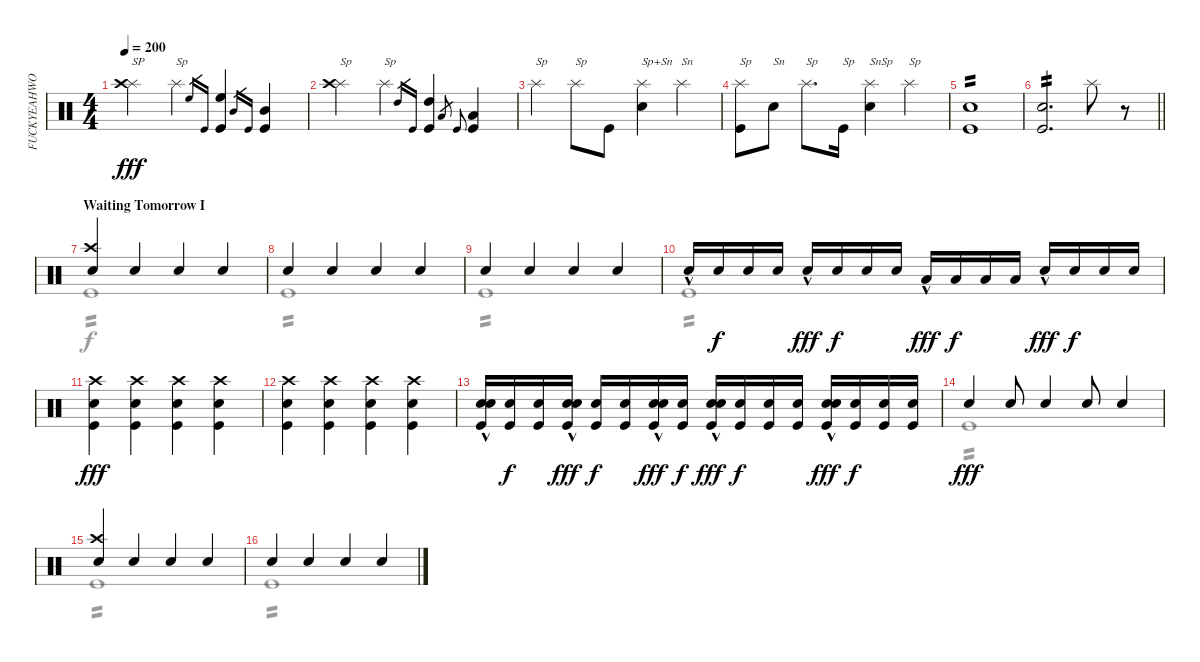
\track ("FUCKYEAHWOOTDAVEMACKINTOSH!(Percussion)" "FUCKYEAHWO") {instrument percussion}
\staff {score}
\articulation defaults
\voice
\ts (4 4)
\tempo 200
\clef neutral
\ks c
("Splash (hit)" "Crash high (hit)").4{txt "SP" dy fff} "Splash (hit)".4{txt "Sp"} "High Floor Tom (hit)".16{gr} "Kick (hit)".16{gr} ("High Floor Tom (hit)" "Kick (hit)").4 "Mid Tom (hit)".16{gr} "Kick (hit)".16{gr} ("Mid Tom (hit)" "Kick (hit)").4 |
("Splash (hit)" "Crash high (hit)").4{txt "Sp"} "Splash (hit)".4{txt "Sp"} "High Tom (hit)".16{gr} "Kick (hit)".16{gr} ("High Tom (hit)" "Kick (hit)").4 "Low Tom (hit)".16{gr} "Kick (hit)".16{gr onbeat} ("Low Tom (hit)" "Kick (hit)").4 |
"Splash (hit)".4{txt "Sp"} "Splash (hit)".8{txt "Sp"} "Kick (hit)".8 ("Snare (hit) 2" "Splash (hit)").4{txt "Sp+Sn"} "Splash (hit)".4{txt "Sn"} |
("Kick (hit)" "Splash (hit)").8{txt "Sp"} "Snare (hit) 2".8{txt "Sn"} "Splash (hit)".8{d txt "Sp"} "Kick (hit)".16{txt "Sp"} ("Snare (hit) 2" "Splash (hit)").4{txt "SnSp"} "Splash (hit)".4{txt "Sp"} |
("Kick (hit)" "Snare (hit) 2").1{tp 2} |
\barLineRight lightlight
("Snare (hit) 2" "Kick (hit)").2{d tp 2} "Splash (hit)".8 r.8 |
\section ("" "Waiting Tomorrow I")
("Snare (hit) 2" "Crash high (hit)").4 "Snare (hit) 2".4 "Snare (hit) 2".4 "Snare (hit) 2".4 |
"Snare (hit) 2".4 "Snare (hit) 2".4 "Snare (hit) 2".4 "Snare (hit) 2".4 |
"Snare (hit) 2".4 "Snare (hit) 2".4 "Snare (hit) 2".4 "Snare (hit) 2".4 |
"Snare (hit) 2"{hac}.16 "Snare (hit) 2".16{dy f} "Snare (hit) 2".16 "Snare (hit) 2".16 "Snare (hit) 2"{hac}.16{dy fff} "Snare (hit) 2".16{dy f} "Snare (hit) 2".16 "Snare (hit) 2".16 "Low Tom (hit)"{hac}.16{dy fff} "Low Tom (hit)".16{dy f} "Low Tom (hit)".16 "Low Tom (hit)".16 "Snare (hit) 2"{hac}.16{dy fff} "Snare (hit) 2".16{dy f} "Snare (hit) 2".16 "Snare (hit) 2".16 |
("Kick (hit)" "Snare (hit) 2" "Crash high (hit)").4{dy fff} ("Kick (hit)" "Snare (hit) 2" "Crash high (hit)").4 ("Kick (hit)" "Snare (hit) 2" "Crash high (hit)").4 ("Kick (hit)" "Snare (hit) 2" "Crash high (hit)").4 |
("Kick (hit)" "Snare (hit) 2" "Crash high (hit)").4 ("Kick (hit)" "Snare (hit) 2" "Crash high (hit)").4 ("Kick (hit)" "Snare (hit) 2" "Crash high (hit)").4 ("Kick (hit)" "Snare (hit) 2" "Crash high (hit)").4 |
("Snare (hit) 2"{hac} "Kick (hit)"{hac} "Electric Snare (hit)").16 ("Snare (hit) 2" "Kick (hit)").16{dy f} ("Snare (hit) 2" "Kick (hit)").16 ("Snare (hit) 2"{hac} "Kick (hit)"{hac} "Electric Snare (hit)").16{dy fff} ("Snare (hit) 2" "Kick (hit)").16{dy f} ("Snare (hit) 2" "Kick (hit)").16 ("Snare (hit) 2"{hac} "Kick (hit)"{hac} "Electric Snare (hit)").16{dy fff} ("Snare (hit) 2" "Kick (hit)").16{dy f} ("Kick (hit)"{hac} "Snare (hit) 2"{hac} "Electric Snare (hit)").16{dy fff} ("Snare (hit) 2" "Kick (hit)").16{dy f} ("Snare (hit) 2" "Kick (hit)").16 ("Snare (hit) 2" "Kick (hit)").16 ("Snare (hit) 2"{hac} "Kick (hit)"{hac} "Electric Snare (hit)").16{dy fff} ("Snare (hit) 2" "Kick (hit)").16{dy f} ("Snare (hit) 2" "Kick (hit)").16 ("Kick (hit)" "Snare (hit) 2").16 |
"Snare (hit) 2".4{dy fff} "Snare (hit) 2".8 "Snare (hit) 2".4 "Snare (hit) 2".8 "Snare (hit) 2".4 |
("Snare (hit) 2" "Crash high (hit)").4 "Snare (hit) 2".4 "Snare (hit) 2".4 "Snare (hit) 2".4 |
"Snare (hit) 2".4 "Snare (hit) 2".4 "Snare (hit) 2".4 "Snare (hit) 2".4
\voice
\clef neutral
\ottava regular
\simile none
\ks c
|
|
|
|
|
\barLineRight lightlight
|
"Kick (hit)".1{tp 2 dy f} |
"Kick (hit)".1{tp 2} |
"Kick (hit)".1{tp 2} |
"Kick (hit)".1{tp 2} |
|
|
|
"Kick (hit)".1{tp 2 dy fff} |
"Kick (hit)".1{tp 2} |
"Kick (hit)".1{tp 2}
